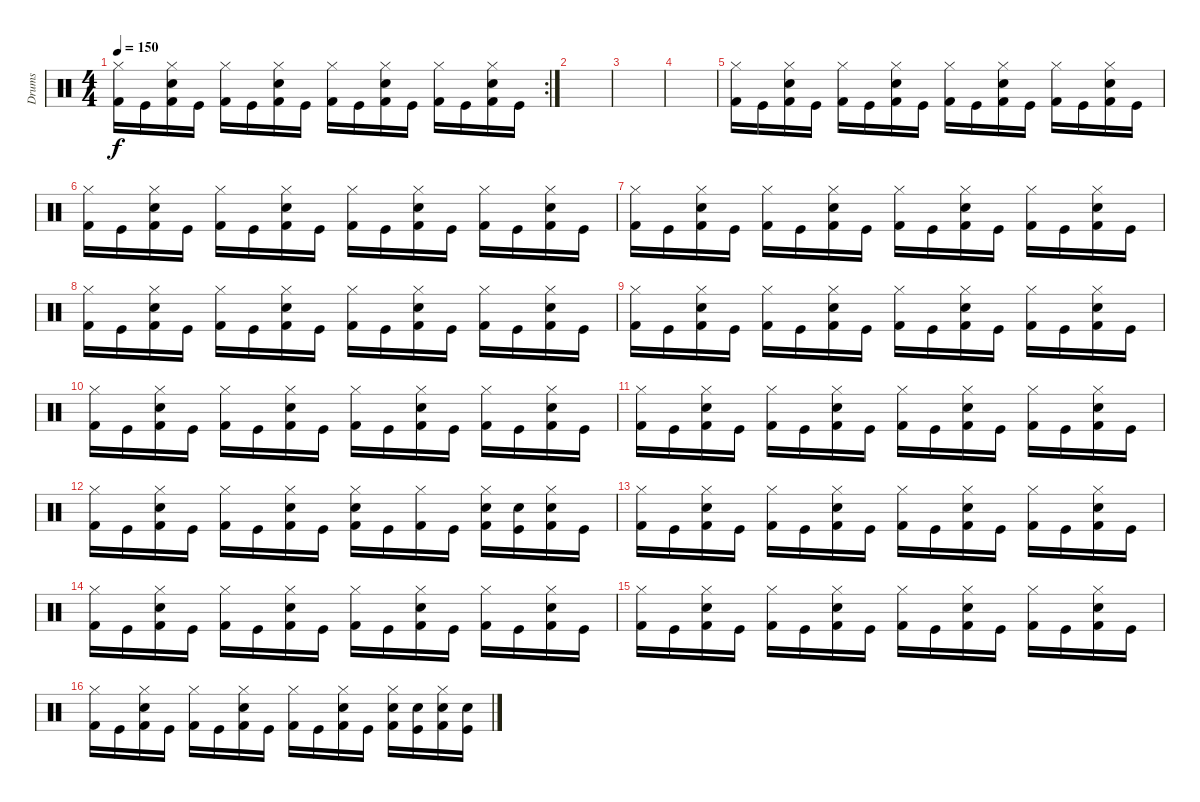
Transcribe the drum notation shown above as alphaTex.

\track ("Drums" "Drums") {instrument percussion}
\staff {score}
\articulation defaults
\rc 2
\ts (4 4)
\tempo 150
\clef neutral
\ks c
("Hi-Hat (closed)" "Kick (hit) 2").16{dy f} "Kick (hit)".16 ("Hi-Hat (closed)" "Snare (hit) 2" "Kick (hit) 2").16 "Kick (hit)".16 ("Hi-Hat (closed)" "Kick (hit) 2").16 "Kick (hit)".16 ("Hi-Hat (closed)" "Snare (hit) 2" "Kick (hit) 2").16 "Kick (hit)".16 ("Hi-Hat (closed)" "Kick (hit) 2").16 "Kick (hit)".16 ("Hi-Hat (closed)" "Snare (hit) 2" "Kick (hit) 2").16 "Kick (hit)".16 ("Hi-Hat (closed)" "Kick (hit) 2").16 "Kick (hit)".16 ("Hi-Hat (closed)" "Snare (hit) 2" "Kick (hit) 2").16 "Kick (hit)".16 |
|
|
|
("Hi-Hat (closed)" "Kick (hit) 2").16 "Kick (hit)".16 ("Hi-Hat (closed)" "Snare (hit) 2" "Kick (hit) 2").16 "Kick (hit)".16 ("Hi-Hat (closed)" "Kick (hit) 2").16 "Kick (hit)".16 ("Hi-Hat (closed)" "Snare (hit) 2" "Kick (hit) 2").16 "Kick (hit)".16 ("Hi-Hat (closed)" "Kick (hit) 2").16 "Kick (hit)".16 ("Hi-Hat (closed)" "Snare (hit) 2" "Kick (hit) 2").16 "Kick (hit)".16 ("Hi-Hat (closed)" "Kick (hit) 2").16 "Kick (hit)".16 ("Hi-Hat (closed)" "Snare (hit) 2" "Kick (hit) 2").16 "Kick (hit)".16 |
("Hi-Hat (closed)" "Kick (hit) 2").16 "Kick (hit)".16 ("Hi-Hat (closed)" "Snare (hit) 2" "Kick (hit) 2").16 "Kick (hit)".16 ("Hi-Hat (closed)" "Kick (hit) 2").16 "Kick (hit)".16 ("Hi-Hat (closed)" "Snare (hit) 2" "Kick (hit) 2").16 "Kick (hit)".16 ("Hi-Hat (closed)" "Kick (hit) 2").16 "Kick (hit)".16 ("Hi-Hat (closed)" "Snare (hit) 2" "Kick (hit) 2").16 "Kick (hit)".16 ("Hi-Hat (closed)" "Kick (hit) 2").16 "Kick (hit)".16 ("Hi-Hat (closed)" "Snare (hit) 2" "Kick (hit) 2").16 "Kick (hit)".16 |
("Hi-Hat (closed)" "Kick (hit) 2").16 "Kick (hit)".16 ("Hi-Hat (closed)" "Snare (hit) 2" "Kick (hit) 2").16 "Kick (hit)".16 ("Hi-Hat (closed)" "Kick (hit) 2").16 "Kick (hit)".16 ("Hi-Hat (closed)" "Snare (hit) 2" "Kick (hit) 2").16 "Kick (hit)".16 ("Hi-Hat (closed)" "Kick (hit) 2").16 "Kick (hit)".16 ("Hi-Hat (closed)" "Snare (hit) 2" "Kick (hit) 2").16 "Kick (hit)".16 ("Hi-Hat (closed)" "Kick (hit) 2").16 "Kick (hit)".16 ("Hi-Hat (closed)" "Snare (hit) 2" "Kick (hit) 2").16 "Kick (hit)".16 |
("Hi-Hat (closed)" "Kick (hit) 2").16 "Kick (hit)".16 ("Hi-Hat (closed)" "Snare (hit) 2" "Kick (hit) 2").16 "Kick (hit)".16 ("Hi-Hat (closed)" "Kick (hit) 2").16 "Kick (hit)".16 ("Hi-Hat (closed)" "Snare (hit) 2" "Kick (hit) 2").16 "Kick (hit)".16 ("Hi-Hat (closed)" "Kick (hit) 2").16 "Kick (hit)".16 ("Hi-Hat (closed)" "Snare (hit) 2" "Kick (hit) 2").16 "Kick (hit)".16 ("Hi-Hat (closed)" "Kick (hit) 2").16 "Kick (hit)".16 ("Hi-Hat (closed)" "Snare (hit) 2" "Kick (hit) 2").16 "Kick (hit)".16 |
("Hi-Hat (closed)" "Kick (hit) 2").16 "Kick (hit)".16 ("Hi-Hat (closed)" "Snare (hit) 2" "Kick (hit) 2").16 "Kick (hit)".16 ("Hi-Hat (closed)" "Kick (hit) 2").16 "Kick (hit)".16 ("Hi-Hat (closed)" "Snare (hit) 2" "Kick (hit) 2").16 "Kick (hit)".16 ("Hi-Hat (closed)" "Kick (hit) 2").16 "Kick (hit)".16 ("Hi-Hat (closed)" "Snare (hit) 2" "Kick (hit) 2").16 "Kick (hit)".16 ("Hi-Hat (closed)" "Kick (hit) 2").16 "Kick (hit)".16 ("Hi-Hat (closed)" "Snare (hit) 2" "Kick (hit) 2").16 "Kick (hit)".16 |
("Hi-Hat (closed)" "Kick (hit) 2").16 "Kick (hit)".16 ("Hi-Hat (closed)" "Snare (hit) 2" "Kick (hit) 2").16 "Kick (hit)".16 ("Hi-Hat (closed)" "Kick (hit) 2").16 "Kick (hit)".16 ("Hi-Hat (closed)" "Snare (hit) 2" "Kick (hit) 2").16 "Kick (hit)".16 ("Hi-Hat (closed)" "Kick (hit) 2").16 "Kick (hit)".16 ("Hi-Hat (closed)" "Snare (hit) 2" "Kick (hit) 2").16 "Kick (hit)".16 ("Hi-Hat (closed)" "Kick (hit) 2").16 "Kick (hit)".16 ("Hi-Hat (closed)" "Snare (hit) 2" "Kick (hit) 2").16 "Kick (hit)".16 |
("Hi-Hat (closed)" "Kick (hit) 2").16 "Kick (hit)".16 ("Hi-Hat (closed)" "Snare (hit) 2" "Kick (hit) 2").16 "Kick (hit)".16 ("Hi-Hat (closed)" "Kick (hit) 2").16 "Kick (hit)".16 ("Hi-Hat (closed)" "Snare (hit) 2" "Kick (hit) 2").16 "Kick (hit)".16 ("Hi-Hat (closed)" "Kick (hit) 2").16 "Kick (hit)".16 ("Hi-Hat (closed)" "Snare (hit) 2" "Kick (hit) 2").16 "Kick (hit)".16 ("Hi-Hat (closed)" "Kick (hit) 2").16 "Kick (hit)".16 ("Hi-Hat (closed)" "Snare (hit) 2" "Kick (hit) 2").16 "Kick (hit)".16 |
("Hi-Hat (closed)" "Kick (hit) 2").16 "Kick (hit)".16 ("Hi-Hat (closed)" "Snare (hit) 2" "Kick (hit) 2").16 "Kick (hit)".16 ("Hi-Hat (closed)" "Kick (hit) 2").16 "Kick (hit)".16 ("Hi-Hat (closed)" "Snare (hit) 2" "Kick (hit) 2").16 "Kick (hit)".16 ("Hi-Hat (closed)" "Snare (hit) 2" "Kick (hit) 2").16 "Kick (hit)".16 ("Hi-Hat (closed)" "Kick (hit) 2").16 "Kick (hit)".16 ("Hi-Hat (closed)" "Snare (hit) 2" "Kick (hit) 2").16 ("Snare (hit) 2" "Kick (hit)").16 ("Hi-Hat (closed)" "Snare (hit) 2" "Kick (hit) 2").16 "Kick (hit)".16 |
("Hi-Hat (closed)" "Kick (hit) 2").16 "Kick (hit)".16 ("Hi-Hat (closed)" "Snare (hit) 2" "Kick (hit) 2").16 "Kick (hit)".16 ("Hi-Hat (closed)" "Kick (hit) 2").16 "Kick (hit)".16 ("Hi-Hat (closed)" "Snare (hit) 2" "Kick (hit) 2").16 "Kick (hit)".16 ("Hi-Hat (closed)" "Kick (hit) 2").16 "Kick (hit)".16 ("Hi-Hat (closed)" "Snare (hit) 2" "Kick (hit) 2").16 "Kick (hit)".16 ("Hi-Hat (closed)" "Kick (hit) 2").16 "Kick (hit)".16 ("Hi-Hat (closed)" "Snare (hit) 2" "Kick (hit) 2").16 "Kick (hit)".16 |
("Hi-Hat (closed)" "Kick (hit) 2").16 "Kick (hit)".16 ("Hi-Hat (closed)" "Snare (hit) 2" "Kick (hit) 2").16 "Kick (hit)".16 ("Hi-Hat (closed)" "Kick (hit) 2").16 "Kick (hit)".16 ("Hi-Hat (closed)" "Snare (hit) 2" "Kick (hit) 2").16 "Kick (hit)".16 ("Hi-Hat (closed)" "Kick (hit) 2").16 "Kick (hit)".16 ("Hi-Hat (closed)" "Snare (hit) 2" "Kick (hit) 2").16 "Kick (hit)".16 ("Hi-Hat (closed)" "Kick (hit) 2").16 "Kick (hit)".16 ("Hi-Hat (closed)" "Snare (hit) 2" "Kick (hit) 2").16 "Kick (hit)".16 |
("Hi-Hat (closed)" "Kick (hit) 2").16 "Kick (hit)".16 ("Hi-Hat (closed)" "Snare (hit) 2" "Kick (hit) 2").16 "Kick (hit)".16 ("Hi-Hat (closed)" "Kick (hit) 2").16 "Kick (hit)".16 ("Hi-Hat (closed)" "Snare (hit) 2" "Kick (hit) 2").16 "Kick (hit)".16 ("Hi-Hat (closed)" "Kick (hit) 2").16 "Kick (hit)".16 ("Hi-Hat (closed)" "Snare (hit) 2" "Kick (hit) 2").16 "Kick (hit)".16 ("Hi-Hat (closed)" "Kick (hit) 2").16 "Kick (hit)".16 ("Hi-Hat (closed)" "Snare (hit) 2" "Kick (hit) 2").16 "Kick (hit)".16 |
("Hi-Hat (closed)" "Kick (hit) 2").16 "Kick (hit)".16 ("Hi-Hat (closed)" "Snare (hit) 2" "Kick (hit) 2").16 "Kick (hit)".16 ("Hi-Hat (closed)" "Kick (hit) 2").16 "Kick (hit)".16 ("Hi-Hat (closed)" "Snare (hit) 2" "Kick (hit) 2").16 "Kick (hit)".16 ("Hi-Hat (closed)" "Kick (hit) 2").16 "Kick (hit)".16 ("Hi-Hat (closed)" "Snare (hit) 2" "Kick (hit) 2").16 "Kick (hit)".16 ("Hi-Hat (closed)" "Snare (hit) 2" "Kick (hit) 2").16 ("Snare (hit) 2" "Kick (hit)").16 ("Hi-Hat (closed)" "Snare (hit) 2" "Kick (hit) 2").16 ("Snare (hit) 2" "Kick (hit)").16
